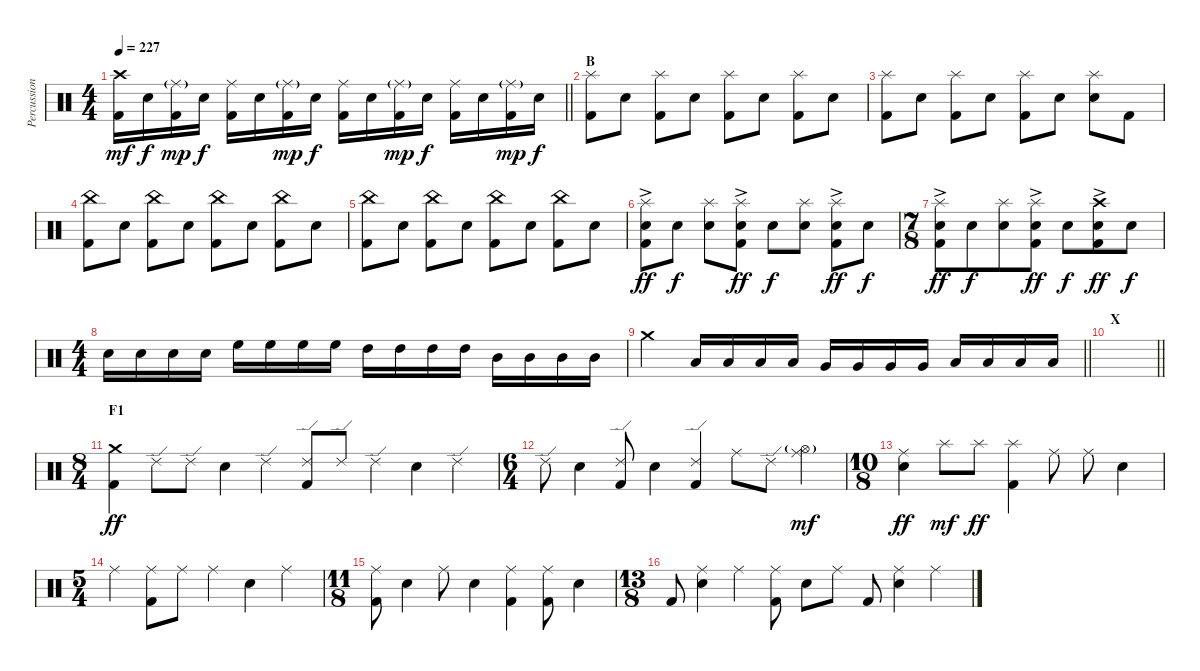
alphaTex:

\track ("Percussion" "Percussion") {instrument percussion}
\staff {score}
\articulation defaults
\ts (4 4)
\tempo 227
\clef neutral
\barLineRight lightlight
\ks c
("Crash high (hit)" "Kick (hit) 2").16{dy mf} "Electric Snare (hit)".16{dy f} ("Ride (middle)"{g} "Kick (hit) 2").16{dy mp} "Electric Snare (hit)".16{dy f} ("Ride (middle)" "Kick (hit) 2").16 "Electric Snare (hit)".16 ("Ride (middle)"{g} "Kick (hit) 2").16{dy mp} "Electric Snare (hit)".16{dy f} ("Ride (middle)" "Kick (hit) 2").16 "Electric Snare (hit)".16 ("Ride (middle)"{g} "Kick (hit) 2").16{dy mp} "Electric Snare (hit)".16{dy f} ("Ride (middle)" "Kick (hit) 2").16 "Electric Snare (hit)".16 ("Ride (middle)"{g} "Kick (hit) 2").16{dy mp} "Electric Snare (hit)".16{dy f} |
\section ("" "B")
("Splash (hit)" "Kick (hit) 2").8 "Electric Snare (hit)".8 ("Splash (hit)" "Kick (hit) 2").8 "Electric Snare (hit)".8 ("Splash (hit)" "Kick (hit) 2").8 "Electric Snare (hit)".8 ("Splash (hit)" "Kick (hit) 2").8 "Electric Snare (hit)".8 |
("Splash (hit)" "Kick (hit) 2").8 "Electric Snare (hit)".8 ("Splash (hit)" "Kick (hit) 2").8 "Electric Snare (hit)".8 ("Splash (hit)" "Kick (hit) 2").8 "Electric Snare (hit)".8 ("Splash (hit)" "Electric Snare (hit)").8 "Kick (hit) 2".8 |
("China (hit)" "Kick (hit) 2").8 "Electric Snare (hit)".8 ("China (hit)" "Kick (hit) 2").8 "Electric Snare (hit)".8 ("China (hit)" "Kick (hit) 2").8 "Electric Snare (hit)".8 ("China (hit)" "Kick (hit) 2").8 "Electric Snare (hit)".8 |
("China (hit)" "Kick (hit) 2").8 "Electric Snare (hit)".8 ("China (hit)" "Kick (hit) 2").8 "Electric Snare (hit)".8 ("China (hit)" "Kick (hit) 2").8 "Electric Snare (hit)".8 ("China (hit)" "Kick (hit) 2").8 "Electric Snare (hit)".8 |
("Splash (hit)"{ac} "Electric Snare (hit)" "Kick (hit) 2").8{dy ff} "Electric Snare (hit)".8{dy f} ("Splash (hit)" "Electric Snare (hit)").8 ("Splash (hit)"{ac} "Electric Snare (hit)" "Kick (hit) 2").8{dy ff} "Electric Snare (hit)".8{dy f} ("Splash (hit)" "Electric Snare (hit)").8 ("Splash (hit)"{ac} "Electric Snare (hit)" "Kick (hit) 2").8{dy ff} "Electric Snare (hit)".8{dy f} |
\ts (7 8)
("Splash (hit)"{ac} "Electric Snare (hit)" "Kick (hit) 2").8{dy ff} "Electric Snare (hit)".8{dy f} ("Splash (hit)" "Electric Snare (hit)").8 ("Splash (hit)"{ac} "Electric Snare (hit)" "Kick (hit) 2").8{dy ff} "Electric Snare (hit)".8{dy f} ("Crash high (hit)"{ac} "Electric Snare (hit)" "Kick (hit) 2").8{dy ff} "Electric Snare (hit)".8{dy f} |
\ts (4 4)
"Electric Snare (hit)".16 "Electric Snare (hit)".16 "Electric Snare (hit)".16 "Electric Snare (hit)".16 "High Floor Tom (hit)".16 "High Floor Tom (hit)".16 "High Floor Tom (hit)".16 "High Floor Tom (hit)".16 "High Tom (hit)".16 "High Tom (hit)".16 "High Tom (hit)".16 "High Tom (hit)".16 "Mid Tom (hit)".16 "Mid Tom (hit)".16 "Mid Tom (hit)".16 "Mid Tom (hit)".16 |
\barLineRight lightlight "Crash medium (hit)".4 "Low Tom (hit)".16 "Low Tom (hit)".16 "Low Tom (hit)".16 "Low Tom (hit)".16 "Very Low Tom (hit)".16 "Very Low Tom (hit)".16 "Very Low Tom (hit)".16 "Very Low Tom (hit)".16 "Low Floor Tom (hit)".16 "Low Floor Tom (hit)".16 "Low Floor Tom (hit)".16 "Low Floor Tom (hit)".16
|
\section ("" "X")
\barLineRight lightlight
|
\ts (8 4)
\section ("" "F1")
("Crash medium (hit)" "Kick (hit) 2").4{dy ff volume 15} "Ride (edge) 2".8 "Ride (edge) 2".8 "Electric Snare (hit)".4 "Ride (edge) 2".4 ("Ride (edge) 2" "Kick (hit) 2").8 "Ride (edge) 2".8 "Ride (edge) 2".4 "Electric Snare (hit)".4 "Ride (edge) 2".4 |
\ts (6 4)
"Ride (edge) 2".8 "Electric Snare (hit)".4 ("Ride (edge) 2" "Kick (hit) 2").8 "Electric Snare (hit)".4 ("Ride (edge) 2" "Kick (hit) 2").4 "Ride (middle)".8 "Ride (edge) 2".8 ("Ride (middle)" "Hi-Hat (open)"{g}).4{dy mf} |
\ts (10 8)
("Ride (middle)" "Electric Snare (hit)").4{dy ff} "Splash (hit)".8{dy mf} "Splash (hit)".8{dy ff} ("Splash (hit)" "Kick (hit) 2").4 "Ride (middle)".8 "Ride (middle)".8 "Electric Snare (hit)".4 |
\ts (5 4)
"Ride (middle)".4 ("Ride (middle)" "Kick (hit) 2").8 "Ride (middle)".8 "Ride (middle)".4 "Electric Snare (hit)".4 "Ride (middle)".4 |
\ts (11 8)
("Ride (middle)" "Kick (hit) 2").8 "Electric Snare (hit)".4 "Ride (middle)".8 "Electric Snare (hit)".4 ("Ride (middle)" "Kick (hit) 2").4 ("Ride (middle)" "Kick (hit) 2").8 "Electric Snare (hit)".4 |
\ts (13 8)
"Kick (hit) 2".8 ("Ride (middle)" "Electric Snare (hit)").4 "Ride (middle)".4 ("Ride (middle)" "Kick (hit) 2").8 "Electric Snare (hit)".8 "Ride (middle)".8 "Kick (hit) 2".8 ("Ride (middle)" "Electric Snare (hit)").4 "Ride (middle)".4
